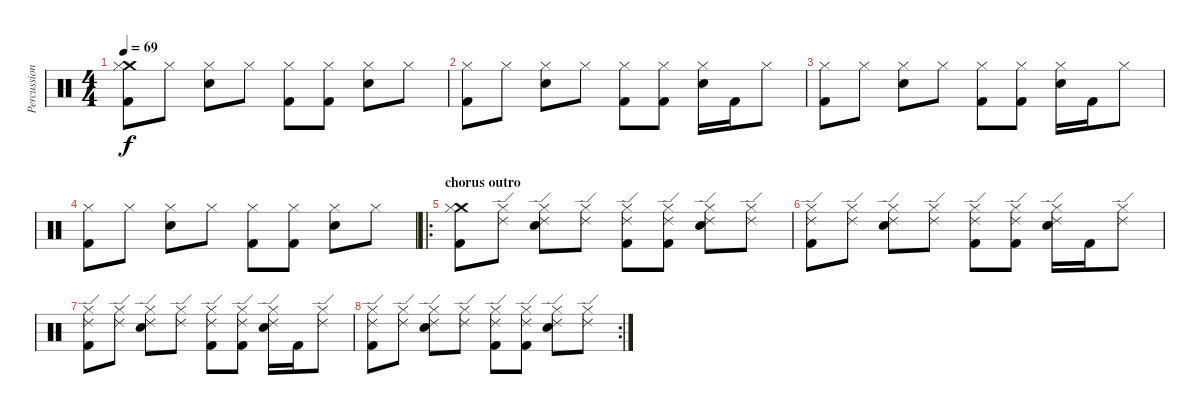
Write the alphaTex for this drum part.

\track ("Percussion" "Percussion") {instrument percussion}
\staff {score}
\articulation defaults
\ts (4 4)
\tempo 69
\clef neutral
\ks c
("Crash medium (hit)" "Hi-Hat (closed)" "Kick (hit) 2").8{dy f} "Hi-Hat (closed)".8 ("Hi-Hat (closed)" "Electric Snare (hit)").8 "Hi-Hat (closed)".8 ("Hi-Hat (closed)" "Kick (hit) 2").8 ("Hi-Hat (closed)" "Kick (hit) 2").8 ("Hi-Hat (closed)" "Electric Snare (hit)").8 "Hi-Hat (closed)".8 |
("Hi-Hat (closed)" "Kick (hit) 2").8 "Hi-Hat (closed)".8 ("Hi-Hat (closed)" "Electric Snare (hit)").8 "Hi-Hat (closed)".8 ("Hi-Hat (closed)" "Kick (hit) 2").8 ("Hi-Hat (closed)" "Kick (hit) 2").8 ("Hi-Hat (closed)" "Electric Snare (hit)").16 "Kick (hit) 2".16 "Hi-Hat (closed)".8 |
("Hi-Hat (closed)" "Kick (hit) 2").8 "Hi-Hat (closed)".8 ("Hi-Hat (closed)" "Electric Snare (hit)").8 "Hi-Hat (closed)".8 ("Hi-Hat (closed)" "Kick (hit) 2").8 ("Hi-Hat (closed)" "Kick (hit) 2").8 ("Hi-Hat (closed)" "Electric Snare (hit)").16 "Kick (hit) 2".16 "Hi-Hat (closed)".8 |
("Hi-Hat (closed)" "Kick (hit) 2").8 "Hi-Hat (closed)".8 ("Hi-Hat (closed)" "Electric Snare (hit)").8 "Hi-Hat (closed)".8 ("Hi-Hat (closed)" "Kick (hit) 2").8 ("Hi-Hat (closed)" "Kick (hit) 2").8 ("Hi-Hat (closed)" "Electric Snare (hit)").8 "Hi-Hat (closed)".8 |
\ro
\section ("" "chorus outro")
("Crash medium (hit)" "Hi-Hat (closed)" "Kick (hit) 2").8 ("Ride (edge) 2" "Hi-Hat (closed)").8 ("Ride (edge) 2" "Hi-Hat (closed)" "Electric Snare (hit)").8 ("Ride (edge) 2" "Hi-Hat (closed)").8 ("Ride (edge) 2" "Hi-Hat (closed)" "Kick (hit) 2").8 ("Ride (edge) 2" "Hi-Hat (closed)" "Kick (hit) 2").8 ("Ride (edge) 2" "Hi-Hat (closed)" "Electric Snare (hit)").8 ("Ride (edge) 2" "Hi-Hat (closed)").8 |
("Ride (edge) 2" "Hi-Hat (closed)" "Kick (hit) 2").8 ("Ride (edge) 2" "Hi-Hat (closed)").8 ("Ride (edge) 2" "Hi-Hat (closed)" "Electric Snare (hit)").8 ("Ride (edge) 2" "Hi-Hat (closed)").8 ("Ride (edge) 2" "Hi-Hat (closed)" "Kick (hit) 2").8 ("Ride (edge) 2" "Hi-Hat (closed)" "Kick (hit) 2").8 ("Ride (edge) 2" "Hi-Hat (closed)" "Electric Snare (hit)").16 "Kick (hit) 2".16 ("Ride (edge) 2" "Hi-Hat (closed)").8 |
("Ride (edge) 2" "Hi-Hat (closed)" "Kick (hit) 2").8 ("Ride (edge) 2" "Hi-Hat (closed)").8 ("Ride (edge) 2" "Hi-Hat (closed)" "Electric Snare (hit)").8 ("Ride (edge) 2" "Hi-Hat (closed)").8 ("Ride (edge) 2" "Hi-Hat (closed)" "Kick (hit) 2").8 ("Ride (edge) 2" "Hi-Hat (closed)" "Kick (hit) 2").8 ("Ride (edge) 2" "Hi-Hat (closed)" "Electric Snare (hit)").16 "Kick (hit) 2".16 ("Ride (edge) 2" "Hi-Hat (closed)").8 |
\rc 2
("Ride (edge) 2" "Hi-Hat (closed)" "Kick (hit) 2").8 ("Ride (edge) 2" "Hi-Hat (closed)").8 ("Ride (edge) 2" "Hi-Hat (closed)" "Electric Snare (hit)").8 ("Ride (edge) 2" "Hi-Hat (closed)").8 ("Ride (edge) 2" "Hi-Hat (closed)" "Kick (hit) 2").8 ("Ride (edge) 2" "Hi-Hat (closed)" "Kick (hit) 2").8 ("Ride (edge) 2" "Hi-Hat (closed)" "Electric Snare (hit)").8 ("Ride (edge) 2" "Hi-Hat (closed)").8
